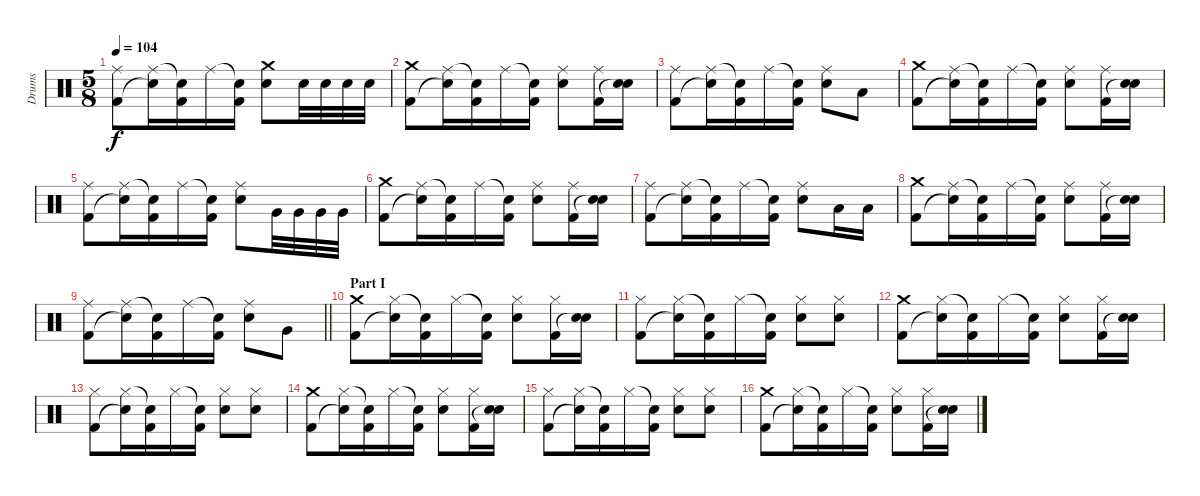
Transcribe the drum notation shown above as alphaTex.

\track ("Drums" "Drums") {instrument percussion}
\staff {score}
\articulation defaults
\ts (5 8)
\tempo 104
\clef neutral
\ks c
("Ride (middle)" "Kick (hit) 2").8{dy f} ("Ride (middle)" "Snare (hit)"{t}).16 ("Snare (hit)"{t} "Kick (hit) 2").16 "Ride (middle)".16 ("Snare (hit)"{t} "Kick (hit) 2").16 ("Crash medium (hit)" "Electric Snare (hit)").8 "Electric Snare (hit)".32 "Electric Snare (hit)".32 "Electric Snare (hit)".32 "Electric Snare (hit)".32 |
("Crash medium (hit)" "Kick (hit) 2").8 ("Ride (middle)" "Snare (hit)"{t}).16 ("Snare (hit)"{t} "Kick (hit) 2").16 "Ride (middle)".16 ("Snare (hit)"{t} "Kick (hit) 2").16 ("Ride (middle)" "Electric Snare (hit)").8 ("Ride (middle)" "Kick (hit) 2").16 ("Electric Snare (hit)" "Snare (hit)"{t}).16 |
("Ride (middle)" "Kick (hit) 2").8 ("Ride (middle)" "Snare (hit)"{t}).16 ("Snare (hit)"{t} "Kick (hit) 2").16 "Ride (middle)".16 ("Snare (hit)"{t} "Kick (hit) 2").16 ("Ride (middle)" "Electric Snare (hit)").8 "Low Tom (hit)".8 |
("Crash medium (hit)" "Kick (hit) 2").8 ("Ride (middle)" "Snare (hit)"{t}).16 ("Snare (hit)"{t} "Kick (hit) 2").16 "Ride (middle)".16 ("Snare (hit)"{t} "Kick (hit) 2").16 ("Ride (middle)" "Electric Snare (hit)").8 ("Ride (middle)" "Kick (hit) 2").16 ("Electric Snare (hit)" "Snare (hit)"{t}).16 |
("Ride (middle)" "Kick (hit) 2").8 ("Ride (middle)" "Snare (hit)"{t}).16 ("Snare (hit)"{t} "Kick (hit) 2").16 "Ride (middle)".16 ("Snare (hit)"{t} "Kick (hit) 2").16 ("Ride (middle)" "Electric Snare (hit)").8 "Very Low Tom (hit)".32 "Very Low Tom (hit)".32 "Very Low Tom (hit)".32 "Very Low Tom (hit)".32 |
("Crash medium (hit)" "Kick (hit) 2").8 ("Ride (middle)" "Snare (hit)"{t}).16 ("Snare (hit)"{t} "Kick (hit) 2").16 "Ride (middle)".16 ("Snare (hit)"{t} "Kick (hit) 2").16 ("Ride (middle)" "Electric Snare (hit)").8 ("Ride (middle)" "Kick (hit) 2").16 ("Electric Snare (hit)" "Snare (hit)"{t}).16 |
("Ride (middle)" "Kick (hit) 2").8 ("Ride (middle)" "Snare (hit)"{t}).16 ("Snare (hit)"{t} "Kick (hit) 2").16 "Ride (middle)".16 ("Snare (hit)"{t} "Kick (hit) 2").16 ("Ride (middle)" "Electric Snare (hit)").8 "Low Tom (hit)".16 "Low Tom (hit)".16 |
("Crash medium (hit)" "Kick (hit) 2").8 ("Ride (middle)" "Snare (hit)"{t}).16 ("Snare (hit)"{t} "Kick (hit) 2").16 "Ride (middle)".16 ("Snare (hit)"{t} "Kick (hit) 2").16 ("Ride (middle)" "Electric Snare (hit)").8 ("Ride (middle)" "Kick (hit) 2").16 ("Electric Snare (hit)" "Snare (hit)"{t}).16 |
\barLineRight lightlight
("Ride (middle)" "Kick (hit) 2").8 ("Ride (middle)" "Snare (hit)"{t}).16 ("Snare (hit)"{t} "Kick (hit) 2").16 "Ride (middle)".16 ("Snare (hit)"{t} "Kick (hit) 2").16 ("Ride (middle)" "Electric Snare (hit)").8 "Very Low Tom (hit)".8 |
\section ("" "Part I")
("Crash medium (hit)" "Kick (hit) 2").8 ("Hi-Hat (closed)" "Snare (hit)"{t}).16 ("Snare (hit)"{t} "Kick (hit) 2").16 "Hi-Hat (closed)".16 ("Snare (hit)"{t} "Kick (hit) 2").16 ("Hi-Hat (closed)" "Electric Snare (hit)").8 ("Hi-Hat (closed)" "Kick (hit) 2").16 ("Electric Snare (hit)" "Snare (hit)"{t}).16 |
("Hi-Hat (closed)" "Kick (hit) 2").8 ("Hi-Hat (closed)" "Snare (hit)"{t}).16 ("Snare (hit)"{t} "Kick (hit) 2").16 "Hi-Hat (closed)".16 ("Snare (hit)"{t} "Kick (hit) 2").16 ("Hi-Hat (closed)" "Electric Snare (hit)").8 ("Hi-Hat (closed)" "Electric Snare (hit)").8 |
("Crash medium (hit)" "Kick (hit) 2").8 ("Hi-Hat (closed)" "Snare (hit)"{t}).16 ("Snare (hit)"{t} "Kick (hit) 2").16 "Hi-Hat (closed)".16 ("Snare (hit)"{t} "Kick (hit) 2").16 ("Hi-Hat (closed)" "Electric Snare (hit)").8 ("Hi-Hat (closed)" "Kick (hit) 2").16 ("Electric Snare (hit)" "Snare (hit)"{t}).16 |
("Hi-Hat (closed)" "Kick (hit) 2").8 ("Hi-Hat (closed)" "Snare (hit)"{t}).16 ("Snare (hit)"{t} "Kick (hit) 2").16 "Hi-Hat (closed)".16 ("Snare (hit)"{t} "Kick (hit) 2").16 ("Hi-Hat (closed)" "Electric Snare (hit)").8 ("Hi-Hat (closed)" "Electric Snare (hit)").8 |
("Crash medium (hit)" "Kick (hit) 2").8 ("Hi-Hat (closed)" "Snare (hit)"{t}).16 ("Snare (hit)"{t} "Kick (hit) 2").16 "Hi-Hat (closed)".16 ("Snare (hit)"{t} "Kick (hit) 2").16 ("Hi-Hat (closed)" "Electric Snare (hit)").8 ("Hi-Hat (closed)" "Kick (hit) 2").16 ("Electric Snare (hit)" "Snare (hit)"{t}).16 |
("Hi-Hat (closed)" "Kick (hit) 2").8 ("Hi-Hat (closed)" "Snare (hit)"{t}).16 ("Snare (hit)"{t} "Kick (hit) 2").16 "Hi-Hat (closed)".16 ("Snare (hit)"{t} "Kick (hit) 2").16 ("Hi-Hat (closed)" "Electric Snare (hit)").8 ("Hi-Hat (closed)" "Electric Snare (hit)").8 |
("Crash medium (hit)" "Kick (hit) 2").8 ("Hi-Hat (closed)" "Snare (hit)"{t}).16 ("Snare (hit)"{t} "Kick (hit) 2").16 "Hi-Hat (closed)".16 ("Snare (hit)"{t} "Kick (hit) 2").16 ("Hi-Hat (closed)" "Electric Snare (hit)").8 ("Hi-Hat (closed)" "Kick (hit) 2").16 ("Electric Snare (hit)" "Snare (hit)"{t}).16
